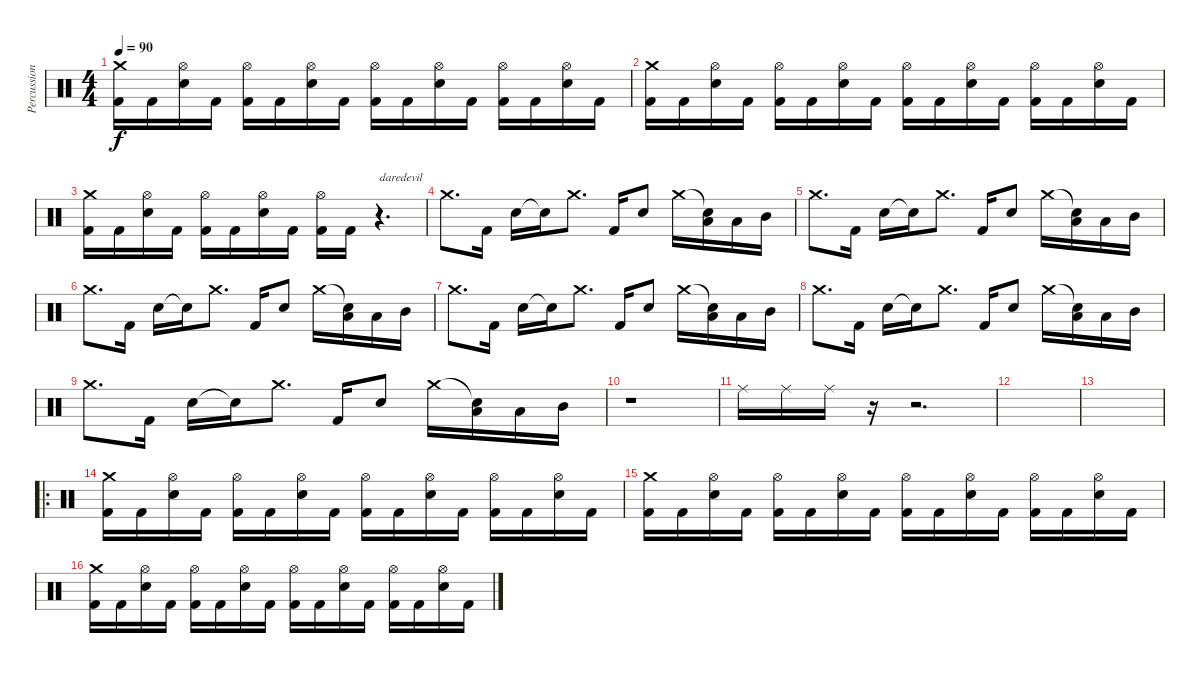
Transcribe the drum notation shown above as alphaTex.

\track ("Percussion" "Percussion") {instrument percussion}
\staff {score}
\articulation defaults
\ts (4 4)
\tempo 90
\clef neutral
\ks c
("Crash medium (hit)" "Kick (hit) 2").16{dy f} "Kick (hit) 2".16 ("Hi-Hat (open)" "Electric Snare (hit)").16 "Kick (hit) 2".16 ("Hi-Hat (open)" "Kick (hit) 2").16 "Kick (hit) 2".16 ("Hi-Hat (open)" "Electric Snare (hit)").16 "Kick (hit) 2".16 ("Hi-Hat (open)" "Kick (hit) 2").16 "Kick (hit) 2".16 ("Hi-Hat (open)" "Electric Snare (hit)").16 "Kick (hit) 2".16 ("Hi-Hat (open)" "Kick (hit) 2").16 "Kick (hit) 2".16 ("Hi-Hat (open)" "Electric Snare (hit)").16 "Kick (hit) 2".16 |
("Crash medium (hit)" "Kick (hit) 2").16 "Kick (hit) 2".16 ("Hi-Hat (open)" "Electric Snare (hit)").16 "Kick (hit) 2".16 ("Hi-Hat (open)" "Kick (hit) 2").16 "Kick (hit) 2".16 ("Hi-Hat (open)" "Electric Snare (hit)").16 "Kick (hit) 2".16 ("Hi-Hat (open)" "Kick (hit) 2").16 "Kick (hit) 2".16 ("Hi-Hat (open)" "Electric Snare (hit)").16 "Kick (hit) 2".16 ("Hi-Hat (open)" "Kick (hit) 2").16 "Kick (hit) 2".16 ("Hi-Hat (open)" "Electric Snare (hit)").16 "Kick (hit) 2".16 |
("Crash medium (hit)" "Kick (hit) 2").16 "Kick (hit) 2".16 ("Hi-Hat (open)" "Electric Snare (hit)").16 "Kick (hit) 2".16 ("Hi-Hat (open)" "Kick (hit) 2").16 "Kick (hit) 2".16 ("Hi-Hat (open)" "Electric Snare (hit)").16 "Kick (hit) 2".16 ("Hi-Hat (open)" "Kick (hit) 2").16 "Kick (hit) 2".16 r.4{d txt "daredevil"} |
"Crash medium (hit)".8{d} "Kick (hit) 2".16 "Electric Snare (hit)".16 "Snare (hit)"{t}.16 "Crash medium (hit)".8{d} "Kick (hit) 2".16 "Electric Snare (hit)".8 "Crash medium (hit)".16 ("Snare (hit)"{t} "Low Tom (hit)").16 "Low Tom (hit)".16 "Mid Tom (hit)".16 |
"Crash medium (hit)".8{d} "Kick (hit) 2".16 "Electric Snare (hit)".16 "Snare (hit)"{t}.16 "Crash medium (hit)".8{d} "Kick (hit) 2".16 "Electric Snare (hit)".8 "Crash medium (hit)".16 ("Snare (hit)"{t} "Low Tom (hit)").16 "Low Tom (hit)".16 "Mid Tom (hit)".16 |
"Crash medium (hit)".8{d} "Kick (hit) 2".16 "Electric Snare (hit)".16 "Snare (hit)"{t}.16 "Crash medium (hit)".8{d} "Kick (hit) 2".16 "Electric Snare (hit)".8 "Crash medium (hit)".16 ("Snare (hit)"{t} "Low Tom (hit)").16 "Low Tom (hit)".16 "Mid Tom (hit)".16 |
"Crash medium (hit)".8{d} "Kick (hit) 2".16 "Electric Snare (hit)".16 "Snare (hit)"{t}.16 "Crash medium (hit)".8{d} "Kick (hit) 2".16 "Electric Snare (hit)".8 "Crash medium (hit)".16 ("Snare (hit)"{t} "Low Tom (hit)").16 "Low Tom (hit)".16 "Mid Tom (hit)".16 |
"Crash medium (hit)".8{d} "Kick (hit) 2".16 "Electric Snare (hit)".16 "Snare (hit)"{t}.16 "Crash medium (hit)".8{d} "Kick (hit) 2".16 "Electric Snare (hit)".8 "Crash medium (hit)".16 ("Snare (hit)"{t} "Low Tom (hit)").16 "Low Tom (hit)".16 "Mid Tom (hit)".16 |
"Crash medium (hit)".8{d} "Kick (hit) 2".16 "Electric Snare (hit)".16 "Snare (hit)"{t}.16 "Crash medium (hit)".8{d} "Kick (hit) 2".16 "Electric Snare (hit)".8 "Crash medium (hit)".16 ("Snare (hit)"{t} "Low Tom (hit)").16 "Low Tom (hit)".16 "Mid Tom (hit)".16 |
r.1 |
"Ride (middle)".16 "Ride (middle)".16 "Ride (middle)".16 r.16 r.2{d} |
|
|
\ro
("Crash medium (hit)" "Kick (hit) 2").16 "Kick (hit) 2".16 ("Hi-Hat (open)" "Electric Snare (hit)").16 "Kick (hit) 2".16 ("Hi-Hat (open)" "Kick (hit) 2").16 "Kick (hit) 2".16 ("Hi-Hat (open)" "Electric Snare (hit)").16 "Kick (hit) 2".16 ("Hi-Hat (open)" "Kick (hit) 2").16 "Kick (hit) 2".16 ("Hi-Hat (open)" "Electric Snare (hit)").16 "Kick (hit) 2".16 ("Hi-Hat (open)" "Kick (hit) 2").16 "Kick (hit) 2".16 ("Hi-Hat (open)" "Electric Snare (hit)").16 "Kick (hit) 2".16 |
("Crash medium (hit)" "Kick (hit) 2").16 "Kick (hit) 2".16 ("Hi-Hat (open)" "Electric Snare (hit)").16 "Kick (hit) 2".16 ("Hi-Hat (open)" "Kick (hit) 2").16 "Kick (hit) 2".16 ("Hi-Hat (open)" "Electric Snare (hit)").16 "Kick (hit) 2".16 ("Hi-Hat (open)" "Kick (hit) 2").16 "Kick (hit) 2".16 ("Hi-Hat (open)" "Electric Snare (hit)").16 "Kick (hit) 2".16 ("Hi-Hat (open)" "Kick (hit) 2").16 "Kick (hit) 2".16 ("Hi-Hat (open)" "Electric Snare (hit)").16 "Kick (hit) 2".16 |
("Crash medium (hit)" "Kick (hit) 2").16 "Kick (hit) 2".16 ("Hi-Hat (open)" "Electric Snare (hit)").16 "Kick (hit) 2".16 ("Hi-Hat (open)" "Kick (hit) 2").16 "Kick (hit) 2".16 ("Hi-Hat (open)" "Electric Snare (hit)").16 "Kick (hit) 2".16 ("Hi-Hat (open)" "Kick (hit) 2").16 "Kick (hit) 2".16 ("Hi-Hat (open)" "Electric Snare (hit)").16 "Kick (hit) 2".16 ("Hi-Hat (open)" "Kick (hit) 2").16 "Kick (hit) 2".16 ("Hi-Hat (open)" "Electric Snare (hit)").16 "Kick (hit) 2".16
